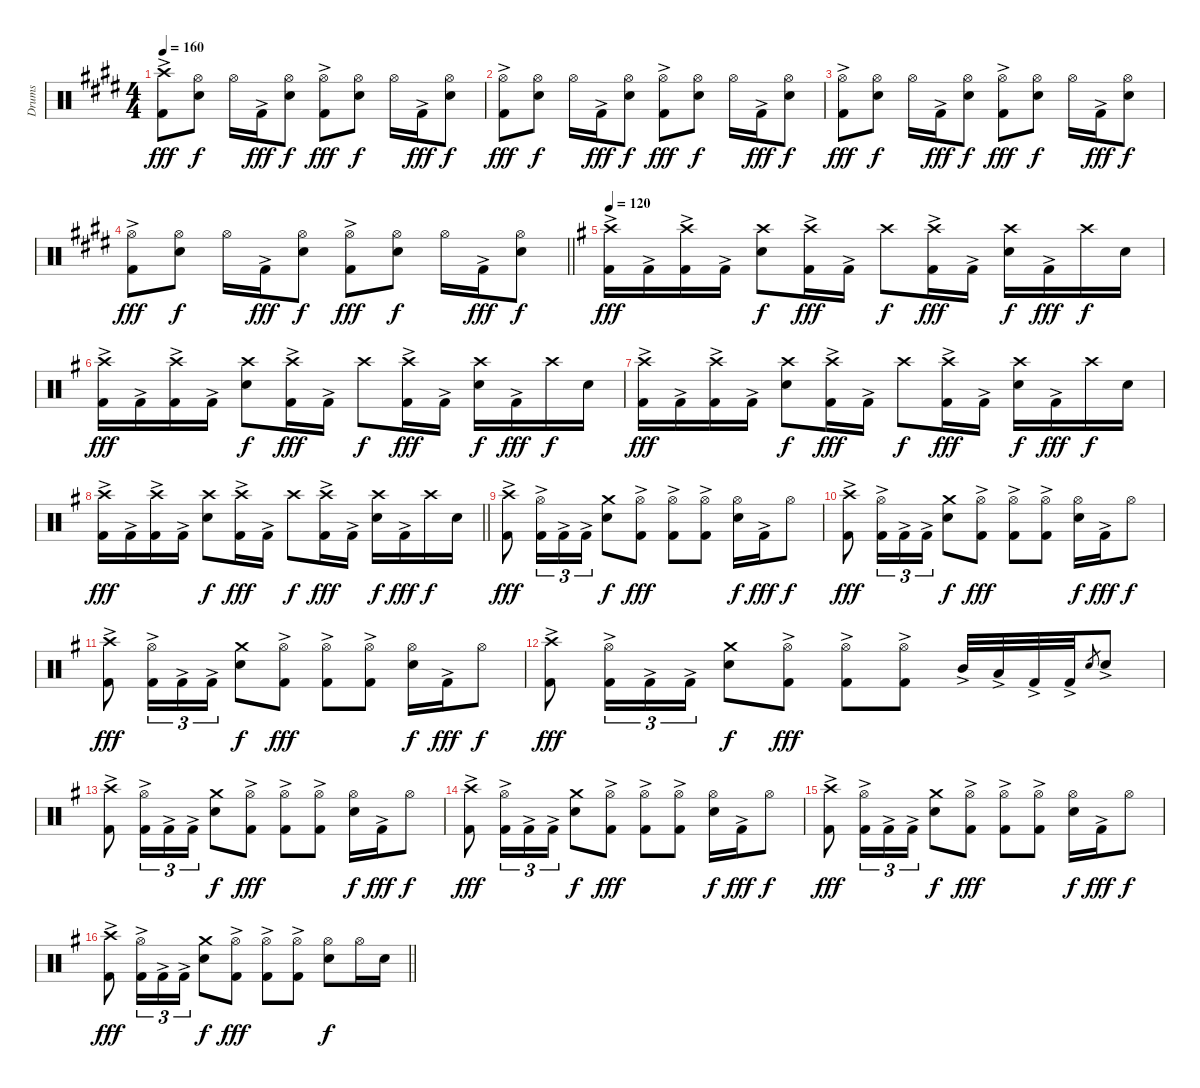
\track ("Drums" "Drums") {instrument percussion}
\staff {score}
\articulation defaults
\ts (4 4)
\tempo 160
\clef neutral
\ks c#minor
("Crash high (hit)" "Kick (hit) 2"{ac}).8{dy fff} ("Hi-Hat (open)" "Snare (hit) 2").8{dy f} "Hi-Hat (open)".16 "Kick (hit) 2"{ac}.16{dy fff} ("Hi-Hat (open)" "Snare (hit) 2").8{dy f} ("Hi-Hat (open)" "Kick (hit) 2"{ac}).8{dy fff} ("Hi-Hat (open)" "Snare (hit) 2").8{dy f} "Hi-Hat (open)".16 "Kick (hit) 2"{ac}.16{dy fff} ("Hi-Hat (open)" "Snare (hit) 2").8{dy f} |
("Hi-Hat (open)" "Kick (hit) 2"{ac}).8{dy fff} ("Hi-Hat (open)" "Snare (hit) 2").8{dy f} "Hi-Hat (open)".16 "Kick (hit) 2"{ac}.16{dy fff} ("Hi-Hat (open)" "Snare (hit) 2").8{dy f} ("Hi-Hat (open)" "Kick (hit) 2"{ac}).8{dy fff} ("Hi-Hat (open)" "Snare (hit) 2").8{dy f} "Hi-Hat (open)".16 "Kick (hit) 2"{ac}.16{dy fff} ("Hi-Hat (open)" "Snare (hit) 2").8{dy f} |
("Hi-Hat (open)" "Kick (hit) 2"{ac}).8{dy fff} ("Hi-Hat (open)" "Snare (hit) 2").8{dy f} "Hi-Hat (open)".16 "Kick (hit) 2"{ac}.16{dy fff} ("Hi-Hat (open)" "Snare (hit) 2").8{dy f} ("Hi-Hat (open)" "Kick (hit) 2"{ac}).8{dy fff} ("Hi-Hat (open)" "Snare (hit) 2").8{dy f} "Hi-Hat (open)".16 "Kick (hit) 2"{ac}.16{dy fff} ("Hi-Hat (open)" "Snare (hit) 2").8{dy f} |
\barLineRight lightlight
("Hi-Hat (open)" "Kick (hit) 2"{ac}).8{dy fff} ("Hi-Hat (open)" "Snare (hit) 2").8{dy f} "Hi-Hat (open)".16 "Kick (hit) 2"{ac}.16{dy fff} ("Hi-Hat (open)" "Snare (hit) 2").8{dy f} ("Hi-Hat (open)" "Kick (hit) 2"{ac}).8{dy fff} ("Hi-Hat (open)" "Snare (hit) 2").8{dy f} "Hi-Hat (open)".16 "Kick (hit) 2"{ac}.16{dy fff} ("Hi-Hat (open)" "Snare (hit) 2").8{dy f} |
\tempo 120
\ks eminor
("Crash high (hit)" "Kick (hit) 2"{ac}).16{dy fff} "Kick (hit) 2"{ac}.16 ("Crash high (hit)" "Kick (hit) 2"{ac}).16 "Kick (hit) 2"{ac}.16 ("Crash high (hit)" "Snare (hit) 2").8{dy f} ("Crash high (hit)" "Kick (hit) 2"{ac}).16{dy fff} "Kick (hit) 2"{ac}.16 "Crash high (hit)".8{dy f} ("Crash high (hit)" "Kick (hit) 2"{ac}).16{dy fff} "Kick (hit) 2"{ac}.16 ("Crash high (hit)" "Snare (hit) 2").16{dy f} "Kick (hit) 2"{ac}.16{dy fff} "Crash high (hit)".16{dy f} "Snare (hit) 2".16 |
("Crash high (hit)" "Kick (hit) 2"{ac}).16{dy fff} "Kick (hit) 2"{ac}.16 ("Crash high (hit)" "Kick (hit) 2"{ac}).16 "Kick (hit) 2"{ac}.16 ("Crash high (hit)" "Snare (hit) 2").8{dy f} ("Crash high (hit)" "Kick (hit) 2"{ac}).16{dy fff} "Kick (hit) 2"{ac}.16 "Crash high (hit)".8{dy f} ("Crash high (hit)" "Kick (hit) 2"{ac}).16{dy fff} "Kick (hit) 2"{ac}.16 ("Crash high (hit)" "Snare (hit) 2").16{dy f} "Kick (hit) 2"{ac}.16{dy fff} "Crash high (hit)".16{dy f} "Snare (hit) 2".16 |
("Crash high (hit)" "Kick (hit) 2"{ac}).16{dy fff} "Kick (hit) 2"{ac}.16 ("Crash high (hit)" "Kick (hit) 2"{ac}).16 "Kick (hit) 2"{ac}.16 ("Crash high (hit)" "Snare (hit) 2").8{dy f} ("Crash high (hit)" "Kick (hit) 2"{ac}).16{dy fff} "Kick (hit) 2"{ac}.16 "Crash high (hit)".8{dy f} ("Crash high (hit)" "Kick (hit) 2"{ac}).16{dy fff} "Kick (hit) 2"{ac}.16 ("Crash high (hit)" "Snare (hit) 2").16{dy f} "Kick (hit) 2"{ac}.16{dy fff} "Crash high (hit)".16{dy f} "Snare (hit) 2".16 |
\barLineRight lightlight
("Crash high (hit)" "Kick (hit) 2"{ac}).16{dy fff} "Kick (hit) 2"{ac}.16 ("Crash high (hit)" "Kick (hit) 2"{ac}).16 "Kick (hit) 2"{ac}.16 ("Crash high (hit)" "Snare (hit) 2").8{dy f} ("Crash high (hit)" "Kick (hit) 2"{ac}).16{dy fff} "Kick (hit) 2"{ac}.16 "Crash high (hit)".8{dy f} ("Crash high (hit)" "Kick (hit) 2"{ac}).16{dy fff} "Kick (hit) 2"{ac}.16 ("Crash high (hit)" "Snare (hit) 2").16{dy f} "Kick (hit) 2"{ac}.16{dy fff} "Crash high (hit)".16{dy f} "Snare (hit) 2".16 |
("Crash high (hit)" "Kick (hit) 2"{ac}).8{dy fff} ("Hi-Hat (open)" "Kick (hit) 2"{ac}).16{tu (3 2)} "Kick (hit) 2"{ac}.16{tu (3 2)} "Kick (hit) 2"{ac}.16{tu (3 2)} ("Crash medium (hit)" "Snare (hit) 2").8{dy f} ("Hi-Hat (open)" "Kick (hit) 2"{ac}).8{dy fff} ("Hi-Hat (open)" "Kick (hit) 2"{ac}).8 ("Hi-Hat (open)" "Kick (hit) 2"{ac}).8 ("Hi-Hat (open)" "Snare (hit) 2").16{dy f} "Kick (hit) 2"{ac}.16{dy fff} "Hi-Hat (open)".8{dy f} |
("Crash high (hit)" "Kick (hit) 2"{ac}).8{dy fff} ("Hi-Hat (open)" "Kick (hit) 2"{ac}).16{tu (3 2)} "Kick (hit) 2"{ac}.16{tu (3 2)} "Kick (hit) 2"{ac}.16{tu (3 2)} ("Crash medium (hit)" "Snare (hit) 2").8{dy f} ("Hi-Hat (open)" "Kick (hit) 2"{ac}).8{dy fff} ("Hi-Hat (open)" "Kick (hit) 2"{ac}).8 ("Hi-Hat (open)" "Kick (hit) 2"{ac}).8 ("Hi-Hat (open)" "Snare (hit) 2").16{dy f} "Kick (hit) 2"{ac}.16{dy fff} "Hi-Hat (open)".8{dy f} |
("Crash high (hit)" "Kick (hit) 2"{ac}).8{dy fff} ("Hi-Hat (open)" "Kick (hit) 2"{ac}).16{tu (3 2)} "Kick (hit) 2"{ac}.16{tu (3 2)} "Kick (hit) 2"{ac}.16{tu (3 2)} ("Crash medium (hit)" "Snare (hit) 2").8{dy f} ("Hi-Hat (open)" "Kick (hit) 2"{ac}).8{dy fff} ("Hi-Hat (open)" "Kick (hit) 2"{ac}).8 ("Hi-Hat (open)" "Kick (hit) 2"{ac}).8 ("Hi-Hat (open)" "Snare (hit) 2").16{dy f} "Kick (hit) 2"{ac}.16{dy fff} "Hi-Hat (open)".8{dy f} |
("Crash high (hit)" "Kick (hit) 2"{ac}).8{dy fff} ("Hi-Hat (open)" "Kick (hit) 2"{ac}).16{tu (3 2)} "Kick (hit) 2"{ac}.16{tu (3 2)} "Kick (hit) 2"{ac}.16{tu (3 2)} ("Crash medium (hit)" "Snare (hit) 2").8{dy f} ("Hi-Hat (open)" "Kick (hit) 2"{ac}).8{dy fff} ("Hi-Hat (open)" "Kick (hit) 2"{ac}).8 ("Hi-Hat (open)" "Kick (hit) 2"{ac}).8 "Mid Tom (hit)"{ac}.32 "Low Tom (hit)"{ac}.32 "Kick (hit) 2"{ac}.32 "Kick (hit) 2"{ac}.32 "Snare (hit) 2".8{gr} "Snare (hit) 2"{ac}.8 |
("Crash high (hit)" "Kick (hit) 2"{ac}).8 ("Hi-Hat (open)" "Kick (hit) 2"{ac}).16{tu (3 2)} "Kick (hit) 2"{ac}.16{tu (3 2)} "Kick (hit) 2"{ac}.16{tu (3 2)} ("Crash medium (hit)" "Snare (hit) 2").8{dy f} ("Hi-Hat (open)" "Kick (hit) 2"{ac}).8{dy fff} ("Hi-Hat (open)" "Kick (hit) 2"{ac}).8 ("Hi-Hat (open)" "Kick (hit) 2"{ac}).8 ("Hi-Hat (open)" "Snare (hit) 2").16{dy f} "Kick (hit) 2"{ac}.16{dy fff} "Hi-Hat (open)".8{dy f} |
("Crash high (hit)" "Kick (hit) 2"{ac}).8{dy fff} ("Hi-Hat (open)" "Kick (hit) 2"{ac}).16{tu (3 2)} "Kick (hit) 2"{ac}.16{tu (3 2)} "Kick (hit) 2"{ac}.16{tu (3 2)} ("Crash medium (hit)" "Snare (hit) 2").8{dy f} ("Hi-Hat (open)" "Kick (hit) 2"{ac}).8{dy fff} ("Hi-Hat (open)" "Kick (hit) 2"{ac}).8 ("Hi-Hat (open)" "Kick (hit) 2"{ac}).8 ("Hi-Hat (open)" "Snare (hit) 2").16{dy f} "Kick (hit) 2"{ac}.16{dy fff} "Hi-Hat (open)".8{dy f} |
("Crash high (hit)" "Kick (hit) 2"{ac}).8{dy fff} ("Hi-Hat (open)" "Kick (hit) 2"{ac}).16{tu (3 2)} "Kick (hit) 2"{ac}.16{tu (3 2)} "Kick (hit) 2"{ac}.16{tu (3 2)} ("Crash medium (hit)" "Snare (hit) 2").8{dy f} ("Hi-Hat (open)" "Kick (hit) 2"{ac}).8{dy fff} ("Hi-Hat (open)" "Kick (hit) 2"{ac}).8 ("Hi-Hat (open)" "Kick (hit) 2"{ac}).8 ("Hi-Hat (open)" "Snare (hit) 2").16{dy f} "Kick (hit) 2"{ac}.16{dy fff} "Hi-Hat (open)".8{dy f} |
\barLineRight lightlight
("Crash high (hit)" "Kick (hit) 2"{ac}).8{dy fff} ("Hi-Hat (open)" "Kick (hit) 2"{ac}).16{tu (3 2)} "Kick (hit) 2"{ac}.16{tu (3 2)} "Kick (hit) 2"{ac}.16{tu (3 2)} ("Crash medium (hit)" "Snare (hit) 2").8{dy f} ("Hi-Hat (open)" "Kick (hit) 2"{ac}).8{dy fff} ("Hi-Hat (open)" "Kick (hit) 2"{ac}).8 ("Hi-Hat (open)" "Kick (hit) 2"{ac}).8 ("Hi-Hat (open)" "Snare (hit) 2").8{dy f} "Hi-Hat (open)".16 "Snare (hit) 2".16
